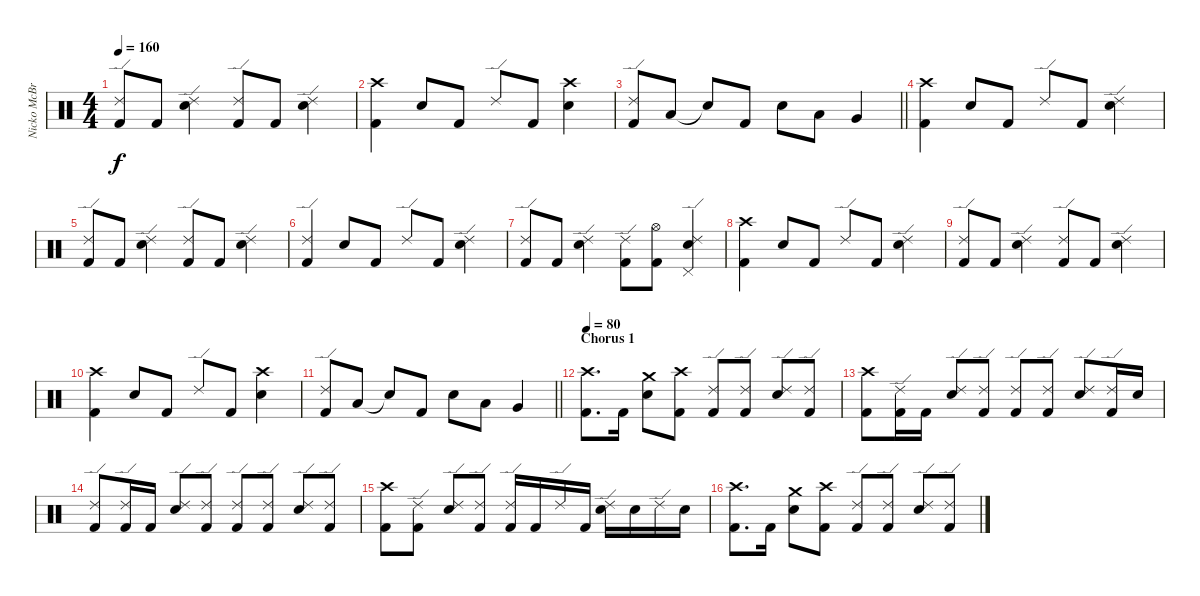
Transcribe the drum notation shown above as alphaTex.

\track ("Nicko McBrain" "Nicko McBr") {instrument percussion}
\staff {score}
\articulation defaults
\ts (4 4)
\tempo 160
\clef neutral
\ks c
("Ride (edge) 2" "Kick (hit) 2").8{dy f} "Kick (hit) 2".8 ("Ride (edge) 2" "Electric Snare (hit)").4 ("Ride (edge) 2" "Kick (hit) 2").8 "Kick (hit) 2".8 ("Ride (edge) 2" "Electric Snare (hit)").4 |
("Crash high (hit)" "Kick (hit) 2").4 "Electric Snare (hit)".8 "Kick (hit) 2".8 "Ride (edge) 2".8 "Kick (hit) 2".8 ("Crash high (hit)" "Electric Snare (hit)").4 |
\barLineRight lightlight
("Ride (edge) 2" "Kick (hit) 2").8 "Low Tom (hit)".8 "Snare (hit)"{t}.8 "Kick (hit) 2".8 "Electric Snare (hit)".8 "Low Tom (hit)".8 "Very Low Tom (hit)".4 |
("Crash high (hit)" "Kick (hit) 2").4 "Electric Snare (hit)".8 "Kick (hit) 2".8 "Ride (edge) 2".8 "Kick (hit) 2".8 ("Ride (edge) 2" "Electric Snare (hit)").4 |
("Ride (edge) 2" "Kick (hit) 2").8 "Kick (hit) 2".8 ("Ride (edge) 2" "Electric Snare (hit)").4 ("Ride (edge) 2" "Kick (hit) 2").8 "Kick (hit) 2".8 ("Ride (edge) 2" "Electric Snare (hit)").4 |
("Ride (edge) 2" "Kick (hit) 2").4 "Electric Snare (hit)".8 "Kick (hit) 2".8 "Ride (edge) 2".8 "Kick (hit) 2".8 ("Ride (edge) 2" "Electric Snare (hit)").4 |
("Ride (edge) 2" "Kick (hit) 2").8 "Kick (hit) 2".8 ("Ride (edge) 2" "Electric Snare (hit)").4 ("Ride (edge) 2" "Kick (hit) 2").8 ("Hi-Hat (open)" "Kick (hit) 2").8 ("Ride (edge) 2" "Pedal Hi-Hat (hit)" "Electric Snare (hit)").4 |
("Crash high (hit)" "Kick (hit) 2").4 "Electric Snare (hit)".8 "Kick (hit) 2".8 "Ride (edge) 2".8 "Kick (hit) 2".8 ("Ride (edge) 2" "Electric Snare (hit)").4 |
("Ride (edge) 2" "Kick (hit) 2").8 "Kick (hit) 2".8 ("Ride (edge) 2" "Electric Snare (hit)").4 ("Ride (edge) 2" "Kick (hit) 2").8 "Kick (hit) 2".8 ("Ride (edge) 2" "Electric Snare (hit)").4 |
("Crash high (hit)" "Kick (hit) 2").4 "Electric Snare (hit)".8 "Kick (hit) 2".8 "Ride (edge) 2".8 "Kick (hit) 2".8 ("Crash high (hit)" "Electric Snare (hit)").4 |
\barLineRight lightlight
("Ride (edge) 2" "Kick (hit) 2").8 "Low Tom (hit)".8 "Snare (hit)"{t}.8 "Kick (hit) 2".8 "Electric Snare (hit)".8 "Low Tom (hit)".8 "Very Low Tom (hit)".4 |
\section ("" "Chorus 1")
\tempo 80
("Crash high (hit)" "Kick (hit) 2").8{d} "Kick (hit) 2".16 ("Crash medium (hit)" "Electric Snare (hit)").8 ("Crash high (hit)" "Kick (hit) 2").8 ("Ride (edge) 2" "Kick (hit) 2").8 ("Ride (edge) 2" "Kick (hit) 2").8 ("Ride (edge) 2" "Electric Snare (hit)").8 ("Ride (edge) 2" "Kick (hit) 2").8 |
("Crash high (hit)" "Kick (hit) 2").8 ("Ride (edge) 2" "Kick (hit) 2").16 "Kick (hit) 2".16 ("Ride (edge) 2" "Electric Snare (hit)").8 ("Ride (edge) 2" "Kick (hit) 2").8 ("Ride (edge) 2" "Kick (hit) 2").8 ("Ride (edge) 2" "Kick (hit) 2").8 ("Ride (edge) 2" "Electric Snare (hit)").8 ("Ride (edge) 2" "Kick (hit) 2").16 "Electric Snare (hit)".16 |
("Ride (edge) 2" "Kick (hit) 2").8 ("Ride (edge) 2" "Kick (hit) 2").16 "Kick (hit) 2".16 ("Ride (edge) 2" "Electric Snare (hit)").8 ("Ride (edge) 2" "Kick (hit) 2").8 ("Ride (edge) 2" "Kick (hit) 2").8 ("Ride (edge) 2" "Kick (hit) 2").8 ("Ride (edge) 2" "Electric Snare (hit)").8 ("Ride (edge) 2" "Kick (hit) 2").8 |
("Crash high (hit)" "Kick (hit) 2").8 ("Ride (edge) 2" "Kick (hit) 2").8 ("Ride (edge) 2" "Electric Snare (hit)").8 ("Ride (edge) 2" "Kick (hit) 2").8 ("Ride (edge) 2" "Kick (hit) 2").16 "Kick (hit) 2".16 "Ride (edge) 2".16 "Kick (hit) 2".16 ("Ride (edge) 2" "Electric Snare (hit)").16 "Electric Snare (hit)".16 "Ride (edge) 2".16 "Electric Snare (hit)".16 |
("Crash high (hit)" "Kick (hit) 2").8{d} "Kick (hit) 2".16 ("Crash medium (hit)" "Electric Snare (hit)").8 ("Crash high (hit)" "Kick (hit) 2").8 ("Ride (edge) 2" "Kick (hit) 2").8 ("Ride (edge) 2" "Kick (hit) 2").8 ("Ride (edge) 2" "Electric Snare (hit)").8 ("Ride (edge) 2" "Kick (hit) 2").8
